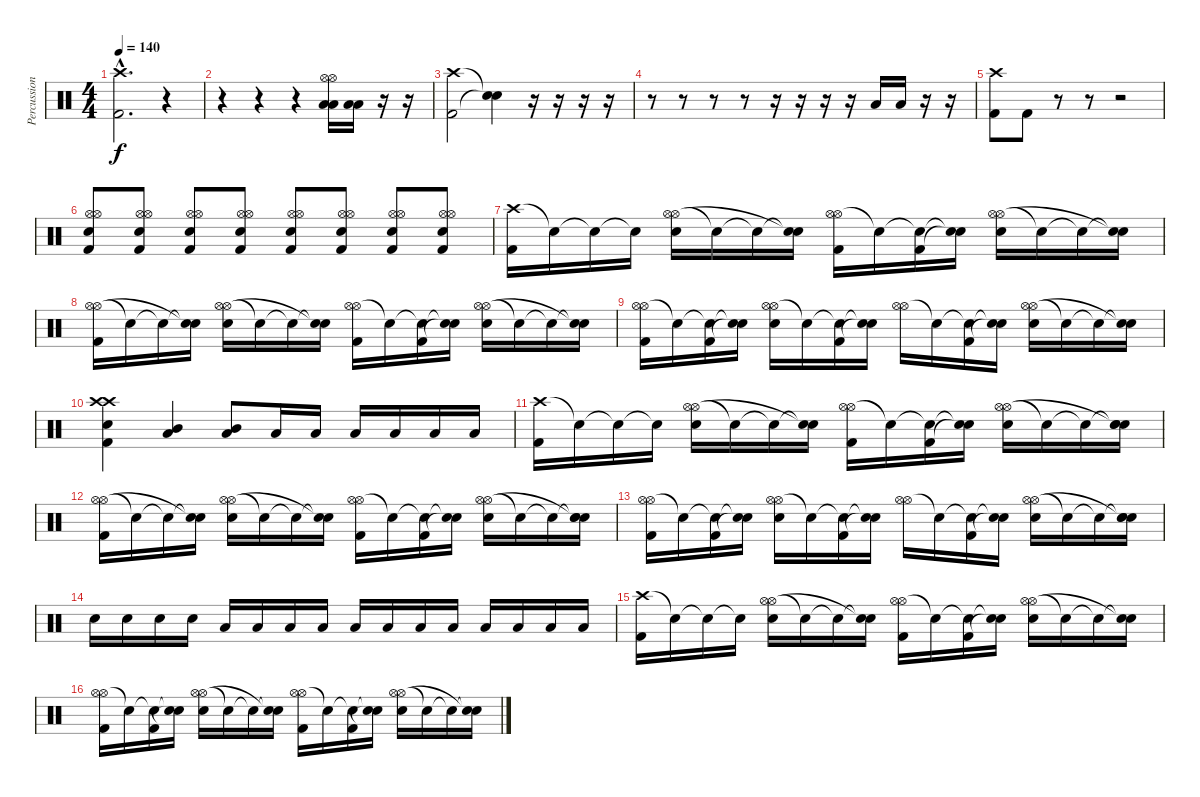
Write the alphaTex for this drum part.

\track ("Percussion" "Percussion") {instrument percussion}
\staff {score}
\articulation defaults
\ts (4 4)
\tempo 140
\clef neutral
\ks c
("Crash high (hit)"{hac} "Kick (hit) 2"{hac}).2{d dy f volume 14} r.4 |
r.4 r.4 r.4 ("Hi-Hat (open)" "Hi-Hat (open)" "Low Tom (hit)" "Low Tom (hit)").16 ("Low Floor Tom (hit)" "Low Floor Tom (hit)").16 r.16 r.16 |
("Crash high (hit)" "Kick (hit) 2").2 ("Snare (hit)"{t} "Snare (hit)"{t}).4 r.16 r.16 r.16 r.16 |
r.8 r.8 r.8 r.8 r.16 r.16 r.16 r.16 "Low Tom (hit)".16 "Low Floor Tom (hit)".16 r.16 r.16 |
("Crash high (hit)" "Kick (hit) 2").8 "Kick (hit) 2".8 r.8 r.8 r.2 |
("Hi-Hat (open)" "Hi-Hat (open)" "Electric Snare (hit)" "Kick (hit) 2").8 ("Hi-Hat (open)" "Hi-Hat (open)" "Electric Snare (hit)" "Kick (hit) 2").8 ("Hi-Hat (open)" "Hi-Hat (open)" "Electric Snare (hit)" "Kick (hit) 2").8 ("Hi-Hat (open)" "Hi-Hat (open)" "Electric Snare (hit)" "Kick (hit) 2").8 ("Hi-Hat (open)" "Hi-Hat (open)" "Electric Snare (hit)" "Kick (hit) 2").8 ("Hi-Hat (open)" "Hi-Hat (open)" "Electric Snare (hit)" "Kick (hit) 2").8 ("Hi-Hat (open)" "Hi-Hat (open)" "Electric Snare (hit)" "Kick (hit) 2").8 ("Hi-Hat (open)" "Hi-Hat (open)" "Electric Snare (hit)" "Kick (hit) 2").8 |
("Crash high (hit)" "Kick (hit) 2").16 "Snare (hit)"{t}.16 "Snare (hit)"{t}.16 "Snare (hit)"{t}.16 ("Hi-Hat (open)" "Hi-Hat (open)" "Electric Snare (hit)").16 "Snare (hit)"{t}.16 "Snare (hit)"{t}.16 ("Snare (hit)"{t} "Snare (hit)"{t}).16 ("Hi-Hat (open)" "Hi-Hat (open)" "Kick (hit) 2").16 "Snare (hit)"{t}.16 ("Snare (hit)"{t} "Kick (hit) 2").16 ("Snare (hit)"{t} "Snare (hit)"{t}).16 ("Hi-Hat (open)" "Hi-Hat (open)" "Electric Snare (hit)").16 "Snare (hit)"{t}.16 "Snare (hit)"{t}.16 ("Snare (hit)"{t} "Snare (hit)"{t}).16 |
("Hi-Hat (open)" "Hi-Hat (open)" "Kick (hit) 2").16 "Snare (hit)"{t}.16 "Snare (hit)"{t}.16 ("Snare (hit)"{t} "Snare (hit)"{t}).16 ("Hi-Hat (open)" "Hi-Hat (open)" "Electric Snare (hit)").16 "Snare (hit)"{t}.16 "Snare (hit)"{t}.16 ("Snare (hit)"{t} "Snare (hit)"{t}).16 ("Hi-Hat (open)" "Hi-Hat (open)" "Kick (hit) 2").16 "Snare (hit)"{t}.16 ("Snare (hit)"{t} "Kick (hit) 2").16 ("Snare (hit)"{t} "Snare (hit)"{t}).16 ("Hi-Hat (open)" "Hi-Hat (open)" "Electric Snare (hit)").16 "Snare (hit)"{t}.16 "Snare (hit)"{t}.16 ("Snare (hit)"{t} "Snare (hit)"{t}).16 |
("Hi-Hat (open)" "Hi-Hat (open)" "Kick (hit) 2").16 "Snare (hit)"{t}.16 ("Snare (hit)"{t} "Kick (hit) 2").16 ("Snare (hit)"{t} "Snare (hit)"{t}).16 ("Hi-Hat (open)" "Hi-Hat (open)" "Electric Snare (hit)").16 "Snare (hit)"{t}.16 ("Snare (hit)"{t} "Kick (hit) 2").16 ("Snare (hit)"{t} "Snare (hit)"{t}).16 ("Hi-Hat (open)" "Hi-Hat (open)").16 "Snare (hit)"{t}.16 ("Snare (hit)"{t} "Kick (hit) 2").16 ("Snare (hit)"{t} "Snare (hit)"{t}).16 ("Hi-Hat (open)" "Hi-Hat (open)" "Electric Snare (hit)").16 "Snare (hit)"{t}.16 "Snare (hit)"{t}.16 ("Snare (hit)"{t} "Snare (hit)"{t}).16 |
("Crash high (hit)" "Crash high (hit)" "Electric Snare (hit)" "Kick (hit) 2").4 ("Low Tom (hit)" "Mid Tom (hit)").4 ("Low Tom (hit)" "Mid Tom (hit)").8 "Low Floor Tom (hit)".16 "Low Floor Tom (hit)".16 "Low Floor Tom (hit)".16 "Low Floor Tom (hit)".16 "Low Floor Tom (hit)".16 "Low Floor Tom (hit)".16 |
("Crash high (hit)" "Kick (hit) 2").16 "Snare (hit)"{t}.16 "Snare (hit)"{t}.16 "Snare (hit)"{t}.16 ("Hi-Hat (open)" "Hi-Hat (open)" "Electric Snare (hit)").16 "Snare (hit)"{t}.16 "Snare (hit)"{t}.16 ("Snare (hit)"{t} "Snare (hit)"{t}).16 ("Hi-Hat (open)" "Hi-Hat (open)" "Kick (hit) 2").16 "Snare (hit)"{t}.16 ("Snare (hit)"{t} "Kick (hit) 2").16 ("Snare (hit)"{t} "Snare (hit)"{t}).16 ("Hi-Hat (open)" "Hi-Hat (open)" "Electric Snare (hit)").16 "Snare (hit)"{t}.16 "Snare (hit)"{t}.16 ("Snare (hit)"{t} "Snare (hit)"{t} "Electric Snare (hit)").16 |
("Hi-Hat (open)" "Hi-Hat (open)" "Kick (hit) 2").16 "Snare (hit)"{t}.16 "Snare (hit)"{t}.16 ("Snare (hit)"{t} "Snare (hit)"{t}).16 ("Hi-Hat (open)" "Hi-Hat (open)" "Electric Snare (hit)").16 "Snare (hit)"{t}.16 "Snare (hit)"{t}.16 ("Snare (hit)"{t} "Snare (hit)"{t}).16 ("Hi-Hat (open)" "Hi-Hat (open)" "Kick (hit) 2").16 "Snare (hit)"{t}.16 ("Snare (hit)"{t} "Kick (hit) 2").16 ("Snare (hit)"{t} "Snare (hit)"{t}).16 ("Hi-Hat (open)" "Hi-Hat (open)" "Electric Snare (hit)").16 "Snare (hit)"{t}.16 "Snare (hit)"{t}.16 ("Snare (hit)"{t} "Snare (hit)"{t} "Electric Snare (hit)").16 |
("Hi-Hat (open)" "Hi-Hat (open)" "Kick (hit) 2").16 "Snare (hit)"{t}.16 ("Snare (hit)"{t} "Kick (hit) 2").16 ("Snare (hit)"{t} "Snare (hit)"{t}).16 ("Hi-Hat (open)" "Hi-Hat (open)" "Electric Snare (hit)").16 "Snare (hit)"{t}.16 ("Snare (hit)"{t} "Kick (hit) 2").16 ("Snare (hit)"{t} "Snare (hit)"{t}).16 ("Hi-Hat (open)" "Hi-Hat (open)").16 "Snare (hit)"{t}.16 ("Snare (hit)"{t} "Kick (hit) 2").16 ("Snare (hit)"{t} "Snare (hit)"{t}).16 ("Hi-Hat (open)" "Hi-Hat (open)" "Electric Snare (hit)").16 "Snare (hit)"{t}.16 "Snare (hit)"{t}.16 ("Snare (hit)"{t} "Snare (hit)"{t} "Electric Snare (hit)").16 |
"Electric Snare (hit)".16 "Electric Snare (hit)".16 "Electric Snare (hit)".16 "Electric Snare (hit)".16 "Low Tom (hit)".16 "Low Tom (hit)".16 "Low Tom (hit)".16 "Low Tom (hit)".16 "Low Floor Tom (hit)".16 "Low Floor Tom (hit)".16 "Low Floor Tom (hit)".16 "Low Floor Tom (hit)".16 "Low Floor Tom (hit)".16 "Low Floor Tom (hit)".16 "Low Floor Tom (hit)".16 "Low Floor Tom (hit)".16 |
("Crash high (hit)" "Kick (hit) 2").16 "Snare (hit)"{t}.16 "Snare (hit)"{t}.16 "Snare (hit)"{t}.16 ("Hi-Hat (open)" "Hi-Hat (open)" "Electric Snare (hit)").16 "Snare (hit)"{t}.16 "Snare (hit)"{t}.16 ("Snare (hit)"{t} "Snare (hit)"{t}).16 ("Hi-Hat (open)" "Hi-Hat (open)" "Kick (hit) 2").16 "Snare (hit)"{t}.16 ("Snare (hit)"{t} "Kick (hit) 2").16 ("Snare (hit)"{t} "Snare (hit)"{t}).16 ("Hi-Hat (open)" "Hi-Hat (open)" "Electric Snare (hit)").16 "Snare (hit)"{t}.16 "Snare (hit)"{t}.16 ("Snare (hit)"{t} "Snare (hit)"{t}).16 |
("Hi-Hat (open)" "Hi-Hat (open)" "Kick (hit) 2").16 "Snare (hit)"{t}.16 ("Snare (hit)"{t} "Kick (hit) 2").16 ("Snare (hit)"{t} "Snare (hit)"{t}).16 ("Hi-Hat (open)" "Hi-Hat (open)" "Electric Snare (hit)").16 "Snare (hit)"{t}.16 "Snare (hit)"{t}.16 ("Snare (hit)"{t} "Snare (hit)"{t}).16 ("Hi-Hat (open)" "Hi-Hat (open)" "Kick (hit) 2").16 "Snare (hit)"{t}.16 ("Snare (hit)"{t} "Kick (hit) 2").16 ("Snare (hit)"{t} "Snare (hit)"{t}).16 ("Hi-Hat (open)" "Hi-Hat (open)" "Electric Snare (hit)").16 "Snare (hit)"{t}.16 "Snare (hit)"{t}.16 ("Snare (hit)"{t} "Snare (hit)"{t}).16
